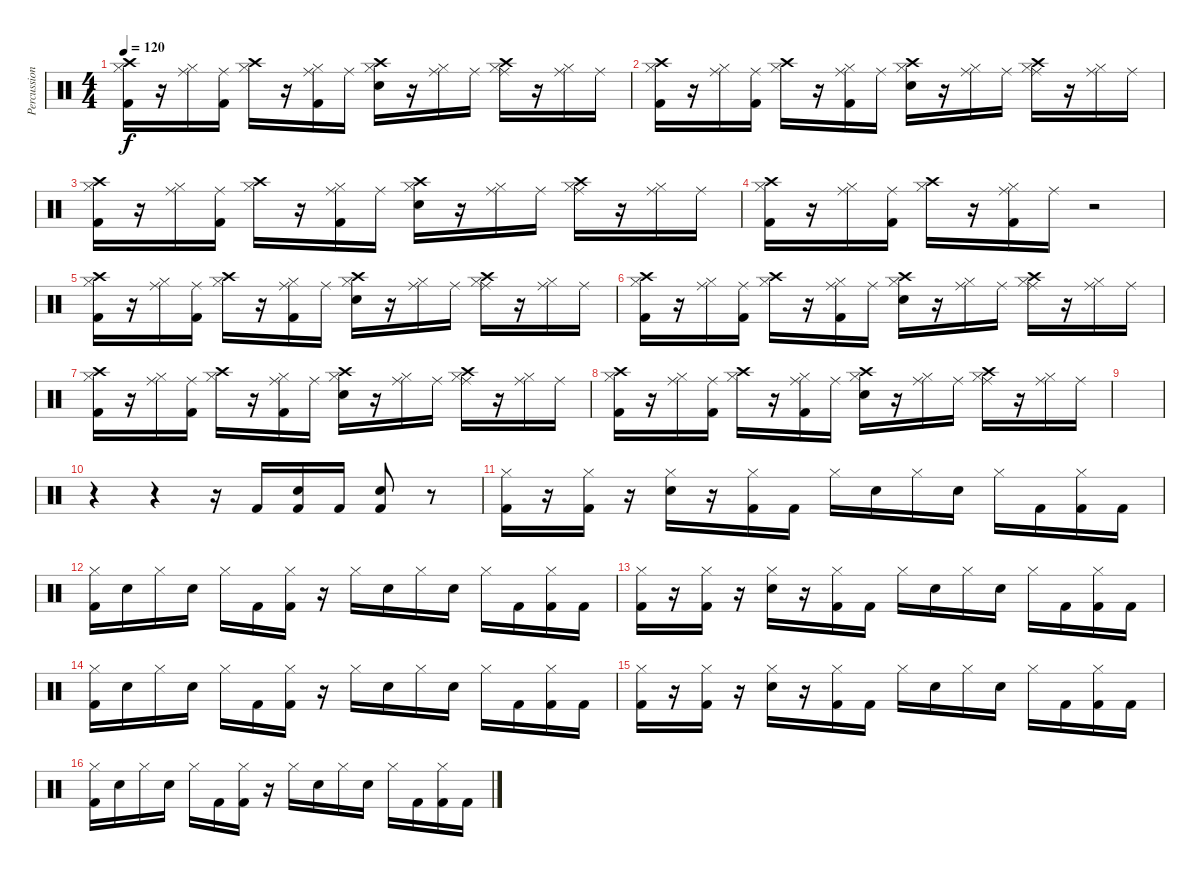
\track ("Percussions" "Percussion") {instrument percussion}
\staff {score}
\articulation defaults
\ts (4 4)
\tempo 120
\clef neutral
\ks c
("Hi-Hat (closed)" "Crash high (hit)" "Kick (hit) 2").16{dy f} r.16 ("Hi-Hat (closed)" "Ride (middle)").16 ("Ride (middle)" "Kick (hit) 2").16 ("Hi-Hat (closed)" "Crash high (hit)").16 r.16 ("Hi-Hat (closed)" "Ride (middle)" "Kick (hit) 2").16 "Ride (middle)".16 ("Hi-Hat (closed)" "Crash high (hit)" "Electric Snare (hit)").16 r.16 ("Hi-Hat (closed)" "Ride (middle)").16 "Ride (middle)".16 ("Hi-Hat (closed)" "Crash high (hit)" "Ride (middle)").16 r.16 ("Hi-Hat (closed)" "Ride (middle)").16 "Ride (middle)".16 |
("Hi-Hat (closed)" "Crash high (hit)" "Kick (hit) 2").16 r.16 ("Hi-Hat (closed)" "Ride (middle)").16 ("Ride (middle)" "Kick (hit) 2").16 ("Hi-Hat (closed)" "Crash high (hit)").16 r.16 ("Hi-Hat (closed)" "Ride (middle)" "Kick (hit) 2").16 "Ride (middle)".16 ("Hi-Hat (closed)" "Crash high (hit)" "Electric Snare (hit)").16 r.16 ("Hi-Hat (closed)" "Ride (middle)").16 "Ride (middle)".16 ("Hi-Hat (closed)" "Crash high (hit)" "Ride (middle)").16 r.16 ("Hi-Hat (closed)" "Ride (middle)").16 "Ride (middle)".16 |
("Hi-Hat (closed)" "Crash high (hit)" "Kick (hit) 2").16 r.16 ("Hi-Hat (closed)" "Ride (middle)").16 ("Ride (middle)" "Kick (hit) 2").16 ("Hi-Hat (closed)" "Crash high (hit)").16 r.16 ("Hi-Hat (closed)" "Ride (middle)" "Kick (hit) 2").16 "Ride (middle)".16 ("Hi-Hat (closed)" "Crash high (hit)" "Electric Snare (hit)").16 r.16 ("Hi-Hat (closed)" "Ride (middle)").16 "Ride (middle)".16 ("Hi-Hat (closed)" "Crash high (hit)" "Ride (middle)").16 r.16 ("Hi-Hat (closed)" "Ride (middle)").16 "Ride (middle)".16 |
("Hi-Hat (closed)" "Crash high (hit)" "Kick (hit) 2").16 r.16 ("Hi-Hat (closed)" "Ride (middle)").16 ("Ride (middle)" "Kick (hit) 2").16 ("Hi-Hat (closed)" "Crash high (hit)").16 r.16 ("Hi-Hat (closed)" "Ride (middle)" "Kick (hit) 2").16 "Ride (middle)".16 r.2 |
("Hi-Hat (closed)" "Crash high (hit)" "Kick (hit) 2").16 r.16 ("Hi-Hat (closed)" "Ride (middle)").16 ("Ride (middle)" "Kick (hit) 2").16 ("Hi-Hat (closed)" "Crash high (hit)").16 r.16 ("Hi-Hat (closed)" "Ride (middle)" "Kick (hit) 2").16 "Ride (middle)".16 ("Hi-Hat (closed)" "Crash high (hit)" "Electric Snare (hit)").16 r.16 ("Hi-Hat (closed)" "Ride (middle)").16 "Ride (middle)".16 ("Hi-Hat (closed)" "Crash high (hit)" "Ride (middle)").16 r.16 ("Hi-Hat (closed)" "Ride (middle)").16 "Ride (middle)".16 |
("Hi-Hat (closed)" "Crash high (hit)" "Kick (hit) 2").16 r.16 ("Hi-Hat (closed)" "Ride (middle)").16 ("Ride (middle)" "Kick (hit) 2").16 ("Hi-Hat (closed)" "Crash high (hit)").16 r.16 ("Hi-Hat (closed)" "Ride (middle)" "Kick (hit) 2").16 "Ride (middle)".16 ("Hi-Hat (closed)" "Crash high (hit)" "Electric Snare (hit)").16 r.16 ("Hi-Hat (closed)" "Ride (middle)").16 "Ride (middle)".16 ("Hi-Hat (closed)" "Crash high (hit)" "Ride (middle)").16 r.16 ("Hi-Hat (closed)" "Ride (middle)").16 "Ride (middle)".16 |
("Hi-Hat (closed)" "Crash high (hit)" "Kick (hit) 2").16 r.16 ("Hi-Hat (closed)" "Ride (middle)").16 ("Ride (middle)" "Kick (hit) 2").16 ("Hi-Hat (closed)" "Crash high (hit)").16 r.16 ("Hi-Hat (closed)" "Ride (middle)" "Kick (hit) 2").16 "Ride (middle)".16 ("Hi-Hat (closed)" "Crash high (hit)" "Electric Snare (hit)").16 r.16 ("Hi-Hat (closed)" "Ride (middle)").16 "Ride (middle)".16 ("Hi-Hat (closed)" "Crash high (hit)" "Ride (middle)").16 r.16 ("Hi-Hat (closed)" "Ride (middle)").16 "Ride (middle)".16 |
("Hi-Hat (closed)" "Crash high (hit)" "Kick (hit) 2").16 r.16 ("Hi-Hat (closed)" "Ride (middle)").16 ("Ride (middle)" "Kick (hit) 2").16 ("Hi-Hat (closed)" "Crash high (hit)").16 r.16 ("Hi-Hat (closed)" "Ride (middle)" "Kick (hit) 2").16 "Ride (middle)".16 ("Hi-Hat (closed)" "Crash high (hit)" "Electric Snare (hit)").16 r.16 ("Hi-Hat (closed)" "Ride (middle)").16 "Ride (middle)".16 ("Hi-Hat (closed)" "Crash high (hit)" "Ride (middle)").16 r.16 ("Hi-Hat (closed)" "Ride (middle)").16 "Ride (middle)".16 |
|
r.4 r.4 r.16 "Kick (hit) 2".16 ("Kick (hit) 2" "Electric Snare (hit)").16 "Kick (hit) 2".16 ("Kick (hit) 2" "Electric Snare (hit)").8 r.8 |
("Hi-Hat (closed)" "Kick (hit) 2").16 r.16 ("Hi-Hat (closed)" "Kick (hit) 2").16 r.16 ("Hi-Hat (closed)" "Electric Snare (hit)").16 r.16 ("Hi-Hat (closed)" "Kick (hit) 2").16 "Kick (hit) 2".16 "Hi-Hat (closed)".16 "Electric Snare (hit)".16 "Hi-Hat (closed)".16 "Electric Snare (hit)".16 "Hi-Hat (closed)".16 "Kick (hit) 2".16 ("Hi-Hat (closed)" "Kick (hit) 2").16 "Kick (hit) 2".16 |
("Hi-Hat (closed)" "Kick (hit) 2").16 "Electric Snare (hit)".16 "Hi-Hat (closed)".16 "Electric Snare (hit)".16 "Hi-Hat (closed)".16 "Kick (hit) 2".16 ("Hi-Hat (closed)" "Kick (hit) 2").16 r.16 "Hi-Hat (closed)".16 "Electric Snare (hit)".16 "Hi-Hat (closed)".16 "Electric Snare (hit)".16 "Hi-Hat (closed)".16 "Kick (hit) 2".16 ("Hi-Hat (closed)" "Kick (hit) 2").16 "Kick (hit) 2".16 |
("Hi-Hat (closed)" "Kick (hit) 2").16 r.16 ("Hi-Hat (closed)" "Kick (hit) 2").16 r.16 ("Hi-Hat (closed)" "Electric Snare (hit)").16 r.16 ("Hi-Hat (closed)" "Kick (hit) 2").16 "Kick (hit) 2".16 "Hi-Hat (closed)".16 "Electric Snare (hit)".16 "Hi-Hat (closed)".16 "Electric Snare (hit)".16 "Hi-Hat (closed)".16 "Kick (hit) 2".16 ("Hi-Hat (closed)" "Kick (hit) 2").16 "Kick (hit) 2".16 |
("Hi-Hat (closed)" "Kick (hit) 2").16 "Electric Snare (hit)".16 "Hi-Hat (closed)".16 "Electric Snare (hit)".16 "Hi-Hat (closed)".16 "Kick (hit) 2".16 ("Hi-Hat (closed)" "Kick (hit) 2").16 r.16 "Hi-Hat (closed)".16 "Electric Snare (hit)".16 "Hi-Hat (closed)".16 "Electric Snare (hit)".16 "Hi-Hat (closed)".16 "Kick (hit) 2".16 ("Hi-Hat (closed)" "Kick (hit) 2").16 "Kick (hit) 2".16 |
("Hi-Hat (closed)" "Kick (hit) 2").16 r.16 ("Hi-Hat (closed)" "Kick (hit) 2").16 r.16 ("Hi-Hat (closed)" "Electric Snare (hit)").16 r.16 ("Hi-Hat (closed)" "Kick (hit) 2").16 "Kick (hit) 2".16 "Hi-Hat (closed)".16 "Electric Snare (hit)".16 "Hi-Hat (closed)".16 "Electric Snare (hit)".16 "Hi-Hat (closed)".16 "Kick (hit) 2".16 ("Hi-Hat (closed)" "Kick (hit) 2").16 "Kick (hit) 2".16 |
("Hi-Hat (closed)" "Kick (hit) 2").16 "Electric Snare (hit)".16 "Hi-Hat (closed)".16 "Electric Snare (hit)".16 "Hi-Hat (closed)".16 "Kick (hit) 2".16 ("Hi-Hat (closed)" "Kick (hit) 2").16 r.16 "Hi-Hat (closed)".16 "Electric Snare (hit)".16 "Hi-Hat (closed)".16 "Electric Snare (hit)".16 "Hi-Hat (closed)".16 "Kick (hit) 2".16 ("Hi-Hat (closed)" "Kick (hit) 2").16 "Kick (hit) 2".16
